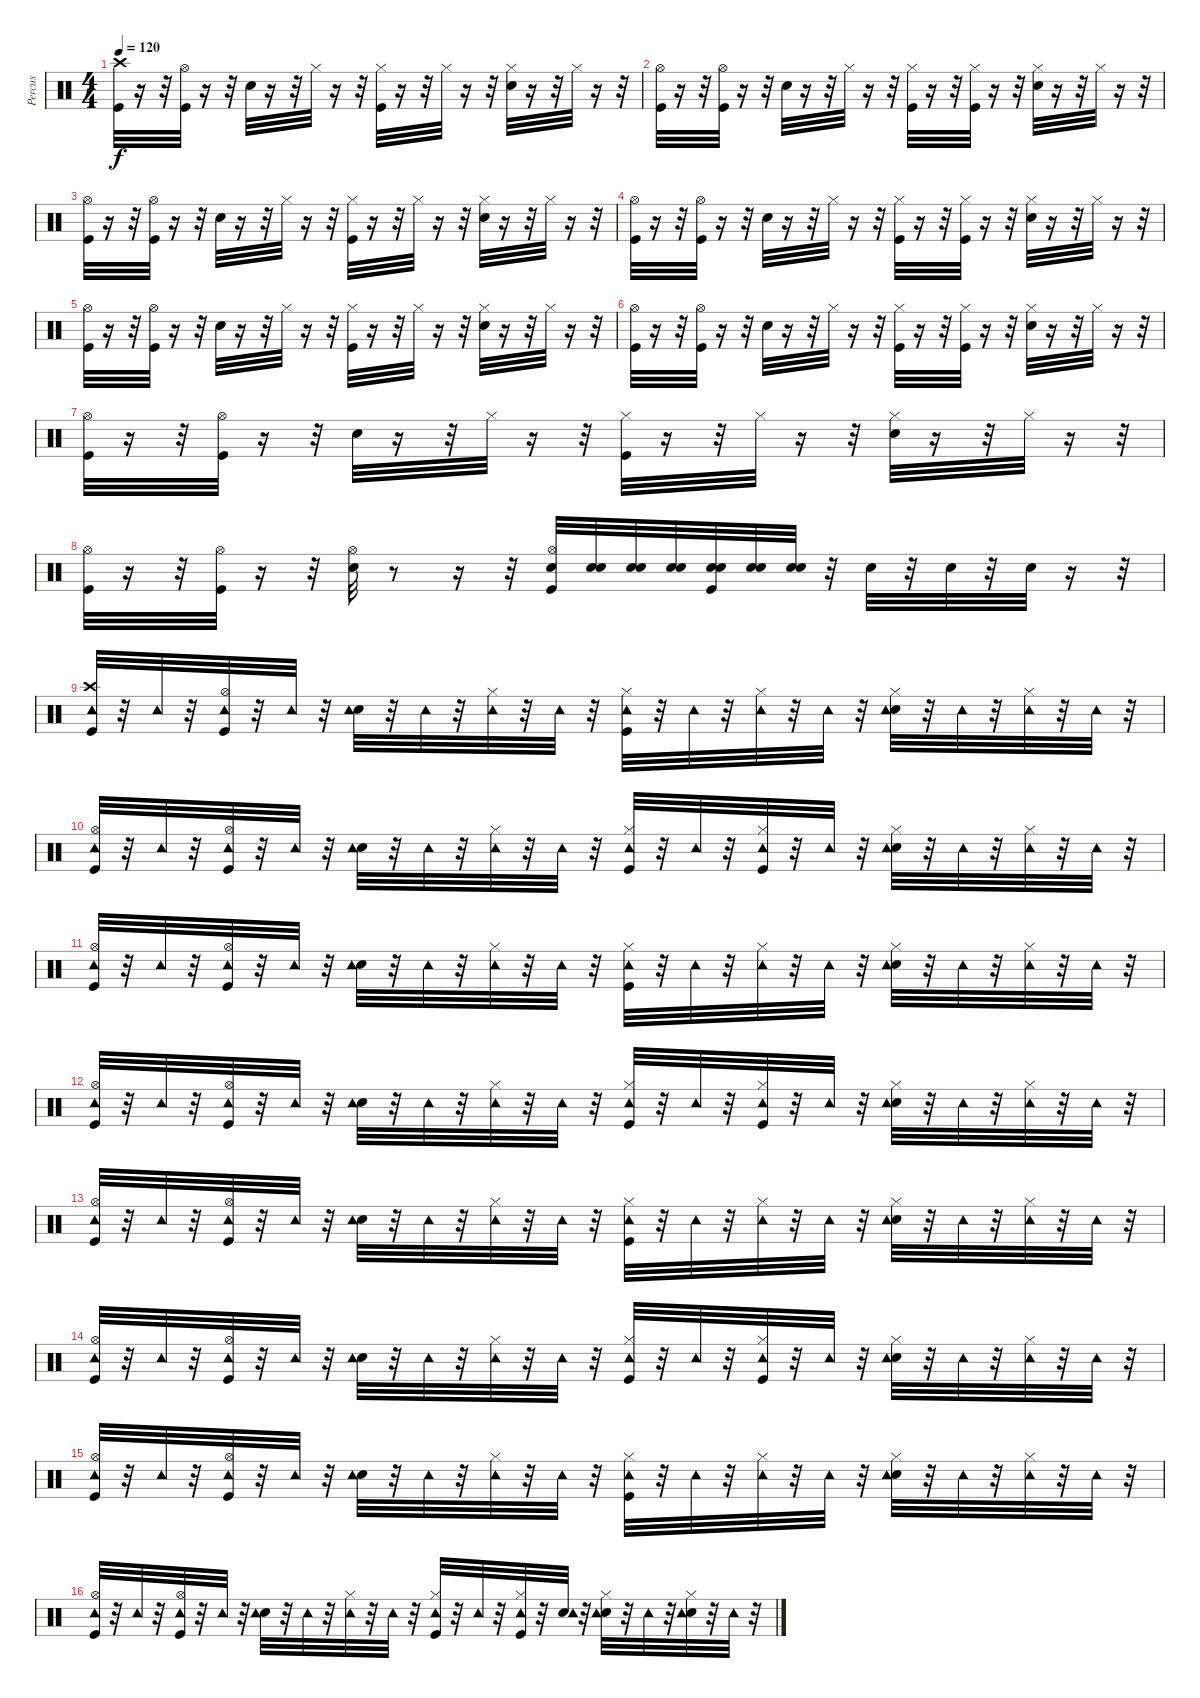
\track ("Percus" "Percus") {instrument percussion}
\staff {score}
\articulation defaults
\ts (4 4)
\tempo 120
\clef neutral
\ks c
("Kick (hit)" "Crash high (hit)").32{dy f} r.16 r.32 ("Kick (hit)" "Hi-Hat (open)").32 r.16 r.32 "Electric Snare (hit)".32 r.16 r.32 "Hi-Hat (closed)".32 r.16 r.32 ("Kick (hit)" "Hi-Hat (closed)").32 r.16 r.32 "Hi-Hat (closed)".32 r.16 r.32 ("Electric Snare (hit)" "Hi-Hat (closed)").32 r.16 r.32 "Hi-Hat (closed)".32 r.16 r.32 |
("Kick (hit)" "Hi-Hat (open)").32 r.16 r.32 ("Kick (hit)" "Hi-Hat (open)").32 r.16 r.32 "Electric Snare (hit)".32 r.16 r.32 "Hi-Hat (closed)".32 r.16 r.32 ("Kick (hit)" "Hi-Hat (closed)").32 r.16 r.32 ("Kick (hit)" "Hi-Hat (closed)").32 r.16 r.32 ("Electric Snare (hit)" "Hi-Hat (closed)").32 r.16 r.32 "Hi-Hat (closed)".32 r.16 r.32 |
("Kick (hit)" "Hi-Hat (open)").32 r.16 r.32 ("Kick (hit)" "Hi-Hat (open)").32 r.16 r.32 "Electric Snare (hit)".32 r.16 r.32 "Hi-Hat (closed)".32 r.16 r.32 ("Kick (hit)" "Hi-Hat (closed)").32 r.16 r.32 "Hi-Hat (closed)".32 r.16 r.32 ("Electric Snare (hit)" "Hi-Hat (closed)").32 r.16 r.32 "Hi-Hat (closed)".32 r.16 r.32 |
("Kick (hit)" "Hi-Hat (open)").32 r.16 r.32 ("Kick (hit)" "Hi-Hat (open)").32 r.16 r.32 "Electric Snare (hit)".32 r.16 r.32 "Hi-Hat (closed)".32 r.16 r.32 ("Kick (hit)" "Hi-Hat (closed)").32 r.16 r.32 ("Kick (hit)" "Hi-Hat (closed)").32 r.16 r.32 ("Electric Snare (hit)" "Hi-Hat (closed)").32 r.16 r.32 "Hi-Hat (closed)".32 r.16 r.32 |
("Kick (hit)" "Hi-Hat (open)").32 r.16 r.32 ("Kick (hit)" "Hi-Hat (open)").32 r.16 r.32 "Electric Snare (hit)".32 r.16 r.32 "Hi-Hat (closed)".32 r.16 r.32 ("Kick (hit)" "Hi-Hat (closed)").32 r.16 r.32 "Hi-Hat (closed)".32 r.16 r.32 ("Electric Snare (hit)" "Hi-Hat (closed)").32 r.16 r.32 "Hi-Hat (closed)".32 r.16 r.32 |
("Kick (hit)" "Hi-Hat (open)").32 r.16 r.32 ("Kick (hit)" "Hi-Hat (open)").32 r.16 r.32 "Electric Snare (hit)".32 r.16 r.32 "Hi-Hat (closed)".32 r.16 r.32 ("Kick (hit)" "Hi-Hat (closed)").32 r.16 r.32 ("Kick (hit)" "Hi-Hat (closed)").32 r.16 r.32 ("Electric Snare (hit)" "Hi-Hat (closed)").32 r.16 r.32 "Hi-Hat (closed)".32 r.16 r.32 |
("Kick (hit)" "Hi-Hat (open)").32 r.16 r.32 ("Kick (hit)" "Hi-Hat (open)").32 r.16 r.32 "Electric Snare (hit)".32 r.16 r.32 "Hi-Hat (closed)".32 r.16 r.32 ("Kick (hit)" "Hi-Hat (closed)").32 r.16 r.32 "Hi-Hat (closed)".32 r.16 r.32 ("Electric Snare (hit)" "Hi-Hat (closed)").32 r.16 r.32 "Hi-Hat (closed)".32 r.16 r.32 |
("Kick (hit)" "Hi-Hat (open)").32 r.16 r.32 ("Kick (hit)" "Hi-Hat (open)").32 r.16 r.32 ("Electric Snare (hit)" "Hi-Hat (open)").32 r.8 r.16 r.32 ("Kick (hit)" "Electric Snare (hit)" "Hi-Hat (open)").32 ("Snare (hit)" "Electric Snare (hit)").32 ("Snare (hit)" "Electric Snare (hit)").32 ("Snare (hit)" "Electric Snare (hit)").32 ("Snare (hit)" "Kick (hit)" "Electric Snare (hit)").32 ("Snare (hit)" "Electric Snare (hit)").32 ("Snare (hit)" "Electric Snare (hit)").32 r.32 "Electric Snare (hit)".32 r.32 "Electric Snare (hit)".32 r.32 "Electric Snare (hit)".32 r.16 r.32 |
("Kick (hit)" "Crash high (hit)" "Tambourine (hit)").32 r.32 "Tambourine (hit)".32 r.32 ("Kick (hit)" "Hi-Hat (open)" "Tambourine (hit)").32 r.32 "Tambourine (hit)".32 r.32 ("Electric Snare (hit)" "Tambourine (hit)").32 r.32 "Tambourine (hit)".32 r.32 ("Hi-Hat (closed)" "Tambourine (hit)").32 r.32 "Tambourine (hit)".32 r.32 ("Kick (hit)" "Hi-Hat (closed)" "Tambourine (hit)").32 r.32 "Tambourine (hit)".32 r.32 ("Hi-Hat (closed)" "Tambourine (hit)").32 r.32 "Tambourine (hit)".32 r.32 ("Electric Snare (hit)" "Hi-Hat (closed)" "Tambourine (hit)").32 r.32 "Tambourine (hit)".32 r.32 ("Hi-Hat (closed)" "Tambourine (hit)").32 r.32 "Tambourine (hit)".32 r.32 |
("Kick (hit)" "Hi-Hat (open)" "Tambourine (hit)").32 r.32 "Tambourine (hit)".32 r.32 ("Kick (hit)" "Hi-Hat (open)" "Tambourine (hit)").32 r.32 "Tambourine (hit)".32 r.32 ("Electric Snare (hit)" "Tambourine (hit)").32 r.32 "Tambourine (hit)".32 r.32 ("Hi-Hat (closed)" "Tambourine (hit)").32 r.32 "Tambourine (hit)".32 r.32 ("Kick (hit)" "Hi-Hat (closed)" "Tambourine (hit)").32 r.32 "Tambourine (hit)".32 r.32 ("Kick (hit)" "Hi-Hat (closed)" "Tambourine (hit)").32 r.32 "Tambourine (hit)".32 r.32 ("Electric Snare (hit)" "Hi-Hat (closed)" "Tambourine (hit)").32 r.32 "Tambourine (hit)".32 r.32 ("Hi-Hat (closed)" "Tambourine (hit)").32 r.32 "Tambourine (hit)".32 r.32 |
("Kick (hit)" "Hi-Hat (open)" "Tambourine (hit)").32 r.32 "Tambourine (hit)".32 r.32 ("Kick (hit)" "Hi-Hat (open)" "Tambourine (hit)").32 r.32 "Tambourine (hit)".32 r.32 ("Electric Snare (hit)" "Tambourine (hit)").32 r.32 "Tambourine (hit)".32 r.32 ("Hi-Hat (closed)" "Tambourine (hit)").32 r.32 "Tambourine (hit)".32 r.32 ("Kick (hit)" "Hi-Hat (closed)" "Tambourine (hit)").32 r.32 "Tambourine (hit)".32 r.32 ("Hi-Hat (closed)" "Tambourine (hit)").32 r.32 "Tambourine (hit)".32 r.32 ("Electric Snare (hit)" "Hi-Hat (closed)" "Tambourine (hit)").32 r.32 "Tambourine (hit)".32 r.32 ("Hi-Hat (closed)" "Tambourine (hit)").32 r.32 "Tambourine (hit)".32 r.32 |
("Kick (hit)" "Hi-Hat (open)" "Tambourine (hit)").32 r.32 "Tambourine (hit)".32 r.32 ("Kick (hit)" "Hi-Hat (open)" "Tambourine (hit)").32 r.32 "Tambourine (hit)".32 r.32 ("Electric Snare (hit)" "Tambourine (hit)").32 r.32 "Tambourine (hit)".32 r.32 ("Hi-Hat (closed)" "Tambourine (hit)").32 r.32 "Tambourine (hit)".32 r.32 ("Kick (hit)" "Hi-Hat (closed)" "Tambourine (hit)").32 r.32 "Tambourine (hit)".32 r.32 ("Kick (hit)" "Hi-Hat (closed)" "Tambourine (hit)").32 r.32 "Tambourine (hit)".32 r.32 ("Electric Snare (hit)" "Hi-Hat (closed)" "Tambourine (hit)").32 r.32 "Tambourine (hit)".32 r.32 ("Hi-Hat (closed)" "Tambourine (hit)").32 r.32 "Tambourine (hit)".32 r.32 |
("Kick (hit)" "Hi-Hat (open)" "Tambourine (hit)").32 r.32 "Tambourine (hit)".32 r.32 ("Kick (hit)" "Hi-Hat (open)" "Tambourine (hit)").32 r.32 "Tambourine (hit)".32 r.32 ("Electric Snare (hit)" "Tambourine (hit)").32 r.32 "Tambourine (hit)".32 r.32 ("Hi-Hat (closed)" "Tambourine (hit)").32 r.32 "Tambourine (hit)".32 r.32 ("Kick (hit)" "Hi-Hat (closed)" "Tambourine (hit)").32 r.32 "Tambourine (hit)".32 r.32 ("Hi-Hat (closed)" "Tambourine (hit)").32 r.32 "Tambourine (hit)".32 r.32 ("Electric Snare (hit)" "Hi-Hat (closed)" "Tambourine (hit)").32 r.32 "Tambourine (hit)".32 r.32 ("Hi-Hat (closed)" "Tambourine (hit)").32 r.32 "Tambourine (hit)".32 r.32 |
("Kick (hit)" "Hi-Hat (open)" "Tambourine (hit)").32 r.32 "Tambourine (hit)".32 r.32 ("Kick (hit)" "Hi-Hat (open)" "Tambourine (hit)").32 r.32 "Tambourine (hit)".32 r.32 ("Electric Snare (hit)" "Tambourine (hit)").32 r.32 "Tambourine (hit)".32 r.32 ("Hi-Hat (closed)" "Tambourine (hit)").32 r.32 "Tambourine (hit)".32 r.32 ("Kick (hit)" "Hi-Hat (closed)" "Tambourine (hit)").32 r.32 "Tambourine (hit)".32 r.32 ("Kick (hit)" "Hi-Hat (closed)" "Tambourine (hit)").32 r.32 "Tambourine (hit)".32 r.32 ("Electric Snare (hit)" "Hi-Hat (closed)" "Tambourine (hit)").32 r.32 "Tambourine (hit)".32 r.32 ("Hi-Hat (closed)" "Tambourine (hit)").32 r.32 "Tambourine (hit)".32 r.32 |
("Kick (hit)" "Hi-Hat (open)" "Tambourine (hit)").32 r.32 "Tambourine (hit)".32 r.32 ("Kick (hit)" "Hi-Hat (open)" "Tambourine (hit)").32 r.32 "Tambourine (hit)".32 r.32 ("Electric Snare (hit)" "Tambourine (hit)").32 r.32 "Tambourine (hit)".32 r.32 ("Hi-Hat (closed)" "Tambourine (hit)").32 r.32 "Tambourine (hit)".32 r.32 ("Kick (hit)" "Hi-Hat (closed)" "Tambourine (hit)").32 r.32 "Tambourine (hit)".32 r.32 ("Hi-Hat (closed)" "Tambourine (hit)").32 r.32 "Tambourine (hit)".32 r.32 ("Electric Snare (hit)" "Hi-Hat (closed)" "Tambourine (hit)").32 r.32 "Tambourine (hit)".32 r.32 ("Hi-Hat (closed)" "Tambourine (hit)").32 r.32 "Tambourine (hit)".32 r.32 |
("Kick (hit)" "Hi-Hat (open)" "Tambourine (hit)").32 r.32 "Tambourine (hit)".32 r.32 ("Kick (hit)" "Hi-Hat (open)" "Tambourine (hit)").32 r.32 "Tambourine (hit)".32 r.32 ("Electric Snare (hit)" "Tambourine (hit)").32 r.32 "Tambourine (hit)".32 r.32 ("Hi-Hat (closed)" "Tambourine (hit)").32 r.32 "Tambourine (hit)".32 r.32 ("Kick (hit)" "Hi-Hat (closed)" "Tambourine (hit)").32 r.32 "Tambourine (hit)".32 r.32 ("Kick (hit)" "Hi-Hat (closed)" "Tambourine (hit)").32 r.32 ("Electric Snare (hit)" "Tambourine (hit)").32 r.32 ("Electric Snare (hit)" "Hi-Hat (closed)" "Tambourine (hit)").32 r.32 "Tambourine (hit)".32 r.32 ("Electric Snare (hit)" "Hi-Hat (closed)" "Tambourine (hit)").32 r.32 "Tambourine (hit)".32 r.32
